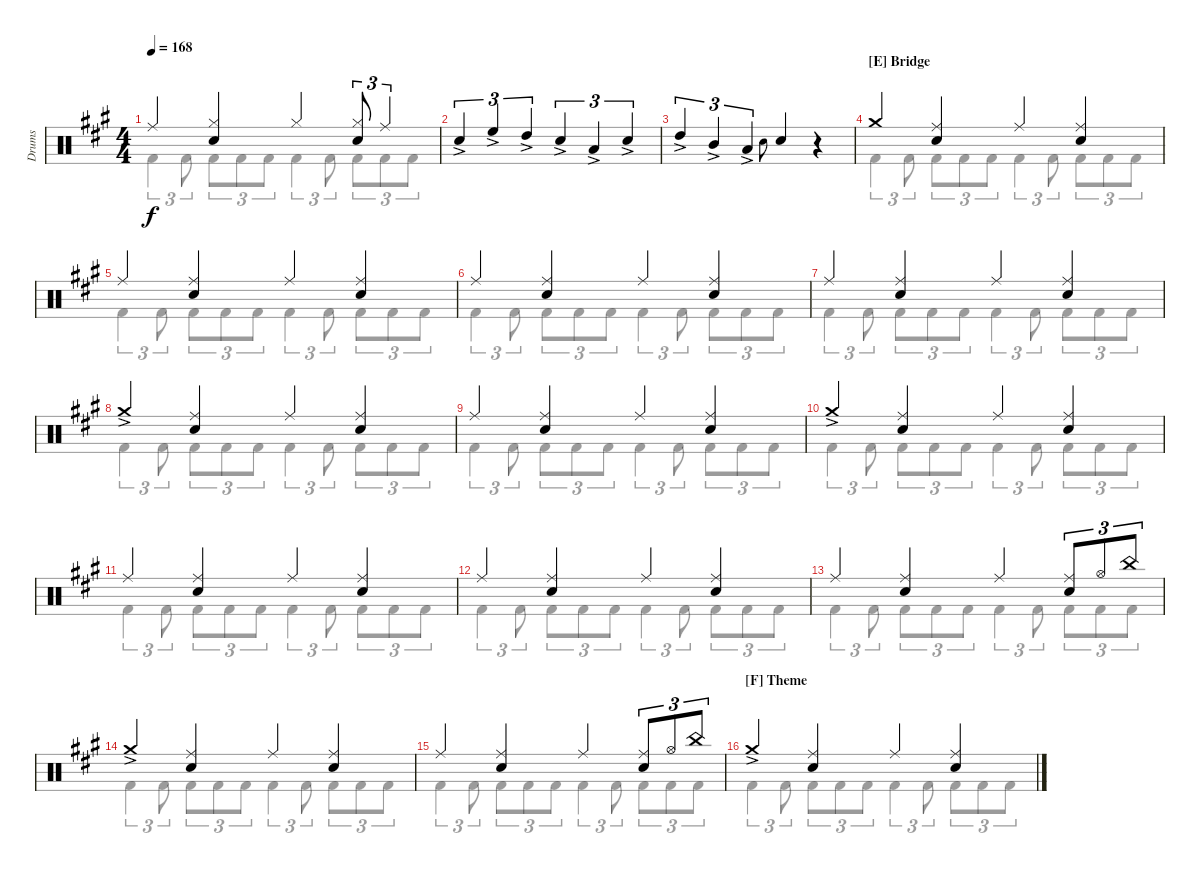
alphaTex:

\defaultSystemsLayout 4
\bracketExtendMode groupsimilarinstruments
\otherSystemsTrackNameOrientation horizontal
\track ("Drums" "Drums") {instrument percussion}
\staff {score}
\articulation defaults
\voice
\ts (4 4)
\tempo 168
\clef neutral
\ks a "Ride (middle)"{acc forcenatural}.4{dy f beam Up}
("Hi-Hat (closed)"{acc forcenatural} "Snare (hit) 2"{acc forcenatural}).4{beam Up} "Hi-Hat (closed)"{acc forcenatural}.4{beam Up} ("Hi-Hat (closed)"{acc forcenatural} "Snare (hit) 2"{acc forcenatural}).8{tu (3 2) beam Up} "Ride (middle)"{acc forcenatural}.4{tu (3 2) beam Up} |
"Snare (hit) 2"{ac acc forcenatural}.4{tu (3 2) beam Up} "High Floor Tom (hit)"{ac acc forcenatural}.4{tu (3 2) beam Up} "High Tom (hit)"{ac acc forcenatural}.4{tu (3 2) beam Up} "Snare (hit) 2"{ac acc forcenatural}.4{tu (3 2) beam Up} "Low Tom (hit)"{ac acc forcenatural}.4{tu (3 2) beam Up} "Snare (hit) 2"{ac acc forcenatural}.4{tu (3 2) beam Up} |
"High Tom (hit)"{ac acc forcenatural}.4{tu (3 2) beam Up} "Mid Tom (hit)"{ac acc forcenatural}.4{tu (3 2) beam Up} "Low Tom (hit)"{ac acc forcenatural}.4{tu (3 2) beam Up} "Snare (hit) 2"{acc forcenatural}.8{gr onbeat beam Down} "Snare (hit) 2"{acc forcenatural}.4{beam Up} r.4{beam Up} |
\section ("E" "Bridge")
"Crash medium (hit)"{acc forcenatural}.4{beam Up} ("Ride (middle)"{acc forcenatural} "Snare (hit) 2"{acc forcenatural}).4{beam Up} "Ride (middle)"{acc forcenatural}.4{beam Up} ("Ride (middle)"{acc forcenatural} "Snare (hit) 2"{acc forcenatural}).4{beam Up} |
"Ride (middle)"{acc forcenatural}.4{beam Up} ("Ride (middle)"{acc forcenatural} "Snare (hit) 2"{acc forcenatural}).4{beam Up} "Ride (middle)"{acc forcenatural}.4{beam Up} ("Ride (middle)"{acc forcenatural} "Snare (hit) 2"{acc forcenatural}).4{beam Up} |
"Ride (middle)"{acc forcenatural}.4{beam Up} ("Ride (middle)"{acc forcenatural} "Snare (hit) 2"{acc forcenatural}).4{beam Up} "Ride (middle)"{acc forcenatural}.4{beam Up} ("Ride (middle)"{acc forcenatural} "Snare (hit) 2"{acc forcenatural}).4{beam Up} |
"Ride (middle)"{acc forcenatural}.4{beam Up} ("Ride (middle)"{acc forcenatural} "Snare (hit) 2"{acc forcenatural}).4{beam Up} "Ride (middle)"{acc forcenatural}.4{beam Up} ("Ride (middle)"{acc forcenatural} "Snare (hit) 2"{acc forcenatural}).4{beam Up} |
"Crash medium (hit)"{ac acc forcenatural}.4{beam Up} ("Ride (middle)"{acc forcenatural} "Snare (hit) 2"{acc forcenatural}).4{beam Up} "Ride (middle)"{acc forcenatural}.4{beam Up} ("Ride (middle)"{acc forcenatural} "Snare (hit) 2"{acc forcenatural}).4{beam Up} |
"Ride (middle)"{acc forcenatural}.4{beam Up} ("Ride (middle)"{acc forcenatural} "Snare (hit) 2"{acc forcenatural}).4{beam Up} "Ride (middle)"{acc forcenatural}.4{beam Up} ("Ride (middle)"{acc forcenatural} "Snare (hit) 2"{acc forcenatural}).4{beam Up} |
"Crash medium (hit)"{ac acc forcenatural}.4{beam Up} ("Ride (middle)"{acc forcenatural} "Snare (hit) 2"{acc forcenatural}).4{beam Up} "Ride (middle)"{acc forcenatural}.4{beam Up} ("Ride (middle)"{acc forcenatural} "Snare (hit) 2"{acc forcenatural}).4{beam Up} |
"Ride (middle)"{acc forcenatural}.4{beam Up} ("Ride (middle)"{acc forcenatural} "Snare (hit) 2"{acc forcenatural}).4{beam Up} "Ride (middle)"{acc forcenatural}.4{beam Up} ("Ride (middle)"{acc forcenatural} "Snare (hit) 2"{acc forcenatural}).4{beam Up} |
"Ride (middle)"{acc forcenatural}.4{beam Up} ("Ride (middle)"{acc forcenatural} "Snare (hit) 2"{acc forcenatural}).4{beam Up} "Ride (middle)"{acc forcenatural}.4{beam Up} ("Ride (middle)"{acc forcenatural} "Snare (hit) 2"{acc forcenatural}).4{beam Up} |
"Ride (middle)"{acc forcenatural}.4{beam Up} ("Ride (middle)"{acc forcenatural} "Snare (hit) 2"{acc forcenatural}).4{beam Up} "Ride (middle)"{acc forcenatural}.4{beam Up} ("Snare (hit) 2"{acc forcenatural} "Ride (middle)"{acc forcenatural}).8{tu (3 2) beam Up} "Hi-Hat (open)"{acc forcenatural}.8{tu (3 2) beam Up} "China (hit)"{acc forcenatural}.8{tu (3 2) beam Up} |
"Crash medium (hit)"{ac acc forcenatural}.4{beam Up} ("Ride (middle)"{acc forcenatural} "Snare (hit) 2"{acc forcenatural}).4{beam Up} "Ride (middle)"{acc forcenatural}.4{beam Up} ("Ride (middle)"{acc forcenatural} "Snare (hit) 2"{acc forcenatural}).4{beam Up} |
"Ride (middle)"{acc forcenatural}.4{beam Up} ("Ride (middle)"{acc forcenatural} "Snare (hit) 2"{acc forcenatural}).4{beam Up} "Ride (middle)"{acc forcenatural}.4{beam Up} ("Snare (hit) 2"{acc forcenatural} "Ride (middle)"{acc forcenatural}).8{tu (3 2) beam Up} "Hi-Hat (open)"{acc forcenatural}.8{tu (3 2) beam Up} "China (hit)"{acc forcenatural}.8{tu (3 2) beam Up} |
\section ("F" "Theme")
"Crash medium (hit)"{ac acc forcenatural}.4{beam Up} ("Ride (middle)"{acc forcenatural} "Snare (hit) 2"{acc forcenatural}).4{beam Up} "Ride (middle)"{acc forcenatural}.4{beam Up} ("Ride (middle)"{acc forcenatural} "Snare (hit) 2"{acc forcenatural}).4{beam Up}
\voice
\clef neutral
\ottava regular
\simile none
\ks a "Kick (hit) 2"{acc forcenatural}.4{tu (3 2) dy f beam Down} "Kick (hit) 2"{acc forcenatural}.8{tu (3 2) beam Down} "Kick (hit) 2"{acc forcenatural}.8{tu (3 2) beam Down} "Kick (hit) 2"{acc forcenatural}.8{tu (3 2) beam Down} "Kick (hit) 2"{acc forcenatural}.8{tu (3 2) beam Down} "Kick (hit) 2"{acc forcenatural}.4{tu (3 2) beam Down} "Kick (hit) 2"{acc forcenatural}.8{tu (3 2) beam Down} "Kick (hit) 2"{acc forcenatural}.8{tu (3 2) beam Down} "Kick (hit) 2"{acc forcenatural}.8{tu (3 2) beam Down} "Kick (hit) 2"{acc forcenatural}.8{tu (3 2) beam Down}
|
|
|
"Kick (hit) 2"{acc forcenatural}.4{tu (3 2) beam Down} "Kick (hit) 2"{acc forcenatural}.8{tu (3 2) beam Down} "Kick (hit) 2"{acc forcenatural}.8{tu (3 2) beam Down} "Kick (hit) 2"{acc forcenatural}.8{tu (3 2) beam Down} "Kick (hit) 2"{acc forcenatural}.8{tu (3 2) beam Down} "Kick (hit) 2"{acc forcenatural}.4{tu (3 2) beam Down} "Kick (hit) 2"{acc forcenatural}.8{tu (3 2) beam Down} "Kick (hit) 2"{acc forcenatural}.8{tu (3 2) beam Down} "Kick (hit) 2"{acc forcenatural}.8{tu (3 2) beam Down} "Kick (hit) 2"{acc forcenatural}.8{tu (3 2) beam Down} |
"Kick (hit) 2"{acc forcenatural}.4{tu (3 2) beam Down} "Kick (hit) 2"{acc forcenatural}.8{tu (3 2) beam Down} "Kick (hit) 2"{acc forcenatural}.8{tu (3 2) beam Down} "Kick (hit) 2"{acc forcenatural}.8{tu (3 2) beam Down} "Kick (hit) 2"{acc forcenatural}.8{tu (3 2) beam Down} "Kick (hit) 2"{acc forcenatural}.4{tu (3 2) beam Down} "Kick (hit) 2"{acc forcenatural}.8{tu (3 2) beam Down} "Kick (hit) 2"{acc forcenatural}.8{tu (3 2) beam Down} "Kick (hit) 2"{acc forcenatural}.8{tu (3 2) beam Down} "Kick (hit) 2"{acc forcenatural}.8{tu (3 2) beam Down} |
"Kick (hit) 2"{acc forcenatural}.4{tu (3 2) beam Down} "Kick (hit) 2"{acc forcenatural}.8{tu (3 2) beam Down} "Kick (hit) 2"{acc forcenatural}.8{tu (3 2) beam Down} "Kick (hit) 2"{acc forcenatural}.8{tu (3 2) beam Down} "Kick (hit) 2"{acc forcenatural}.8{tu (3 2) beam Down} "Kick (hit) 2"{acc forcenatural}.4{tu (3 2) beam Down} "Kick (hit) 2"{acc forcenatural}.8{tu (3 2) beam Down} "Kick (hit) 2"{acc forcenatural}.8{tu (3 2) beam Down} "Kick (hit) 2"{acc forcenatural}.8{tu (3 2) beam Down} "Kick (hit) 2"{acc forcenatural}.8{tu (3 2) beam Down} |
"Kick (hit) 2"{acc forcenatural}.4{tu (3 2) beam Down} "Kick (hit) 2"{acc forcenatural}.8{tu (3 2) beam Down} "Kick (hit) 2"{acc forcenatural}.8{tu (3 2) beam Down} "Kick (hit) 2"{acc forcenatural}.8{tu (3 2) beam Down} "Kick (hit) 2"{acc forcenatural}.8{tu (3 2) beam Down} "Kick (hit) 2"{acc forcenatural}.4{tu (3 2) beam Down} "Kick (hit) 2"{acc forcenatural}.8{tu (3 2) beam Down} "Kick (hit) 2"{acc forcenatural}.8{tu (3 2) beam Down} "Kick (hit) 2"{acc forcenatural}.8{tu (3 2) beam Down} "Kick (hit) 2"{acc forcenatural}.8{tu (3 2) beam Down} |
"Kick (hit) 2"{acc forcenatural}.4{tu (3 2) beam Down} "Kick (hit) 2"{acc forcenatural}.8{tu (3 2) beam Down} "Kick (hit) 2"{acc forcenatural}.8{tu (3 2) beam Down} "Kick (hit) 2"{acc forcenatural}.8{tu (3 2) beam Down} "Kick (hit) 2"{acc forcenatural}.8{tu (3 2) beam Down} "Kick (hit) 2"{acc forcenatural}.4{tu (3 2) beam Down} "Kick (hit) 2"{acc forcenatural}.8{tu (3 2) beam Down} "Kick (hit) 2"{acc forcenatural}.8{tu (3 2) beam Down} "Kick (hit) 2"{acc forcenatural}.8{tu (3 2) beam Down} "Kick (hit) 2"{acc forcenatural}.8{tu (3 2) beam Down} |
"Kick (hit) 2"{acc forcenatural}.4{tu (3 2) beam Down} "Kick (hit) 2"{acc forcenatural}.8{tu (3 2) beam Down} "Kick (hit) 2"{acc forcenatural}.8{tu (3 2) beam Down} "Kick (hit) 2"{acc forcenatural}.8{tu (3 2) beam Down} "Kick (hit) 2"{acc forcenatural}.8{tu (3 2) beam Down} "Kick (hit) 2"{acc forcenatural}.4{tu (3 2) beam Down} "Kick (hit) 2"{acc forcenatural}.8{tu (3 2) beam Down} "Kick (hit) 2"{acc forcenatural}.8{tu (3 2) beam Down} "Kick (hit) 2"{acc forcenatural}.8{tu (3 2) beam Down} "Kick (hit) 2"{acc forcenatural}.8{tu (3 2) beam Down} |
"Kick (hit) 2"{acc forcenatural}.4{tu (3 2) beam Down} "Kick (hit) 2"{acc forcenatural}.8{tu (3 2) beam Down} "Kick (hit) 2"{acc forcenatural}.8{tu (3 2) beam Down} "Kick (hit) 2"{acc forcenatural}.8{tu (3 2) beam Down} "Kick (hit) 2"{acc forcenatural}.8{tu (3 2) beam Down} "Kick (hit) 2"{acc forcenatural}.4{tu (3 2) beam Down} "Kick (hit) 2"{acc forcenatural}.8{tu (3 2) beam Down} "Kick (hit) 2"{acc forcenatural}.8{tu (3 2) beam Down} "Kick (hit) 2"{acc forcenatural}.8{tu (3 2) beam Down} "Kick (hit) 2"{acc forcenatural}.8{tu (3 2) beam Down} |
"Kick (hit) 2"{acc forcenatural}.4{tu (3 2) beam Down} "Kick (hit) 2"{acc forcenatural}.8{tu (3 2) beam Down} "Kick (hit) 2"{acc forcenatural}.8{tu (3 2) beam Down} "Kick (hit) 2"{acc forcenatural}.8{tu (3 2) beam Down} "Kick (hit) 2"{acc forcenatural}.8{tu (3 2) beam Down} "Kick (hit) 2"{acc forcenatural}.4{tu (3 2) beam Down} "Kick (hit) 2"{acc forcenatural}.8{tu (3 2) beam Down} "Kick (hit) 2"{acc forcenatural}.8{tu (3 2) beam Down} "Kick (hit) 2"{acc forcenatural}.8{tu (3 2) beam Down} "Kick (hit) 2"{acc forcenatural}.8{tu (3 2) beam Down} |
"Kick (hit) 2"{acc forcenatural}.4{tu (3 2) beam Down} "Kick (hit) 2"{acc forcenatural}.8{tu (3 2) beam Down} "Kick (hit) 2"{acc forcenatural}.8{tu (3 2) beam Down} "Kick (hit) 2"{acc forcenatural}.8{tu (3 2) beam Down} "Kick (hit) 2"{acc forcenatural}.8{tu (3 2) beam Down} "Kick (hit) 2"{acc forcenatural}.4{tu (3 2) beam Down} "Kick (hit) 2"{acc forcenatural}.8{tu (3 2) beam Down} "Kick (hit) 2"{acc forcenatural}.8{tu (3 2) beam Down} "Kick (hit) 2"{acc forcenatural}.8{tu (3 2) beam Down} "Kick (hit) 2"{acc forcenatural}.8{tu (3 2) beam Down} |
"Kick (hit) 2"{acc forcenatural}.4{tu (3 2) beam Down} "Kick (hit) 2"{acc forcenatural}.8{tu (3 2) beam Down} "Kick (hit) 2"{acc forcenatural}.8{tu (3 2) beam Down} "Kick (hit) 2"{acc forcenatural}.8{tu (3 2) beam Down} "Kick (hit) 2"{acc forcenatural}.8{tu (3 2) beam Down} "Kick (hit) 2"{acc forcenatural}.4{tu (3 2) beam Down} "Kick (hit) 2"{acc forcenatural}.8{tu (3 2) beam Down} "Kick (hit) 2"{acc forcenatural}.8{tu (3 2) beam Down} "Kick (hit) 2"{acc forcenatural}.8{tu (3 2) beam Down} "Kick (hit) 2"{acc forcenatural}.8{tu (3 2) beam Down} |
"Kick (hit) 2"{acc forcenatural}.4{tu (3 2) beam Down} "Kick (hit) 2"{acc forcenatural}.8{tu (3 2) beam Down} "Kick (hit) 2"{acc forcenatural}.8{tu (3 2) beam Down} "Kick (hit) 2"{acc forcenatural}.8{tu (3 2) beam Down} "Kick (hit) 2"{acc forcenatural}.8{tu (3 2) beam Down} "Kick (hit) 2"{acc forcenatural}.4{tu (3 2) beam Down} "Kick (hit) 2"{acc forcenatural}.8{tu (3 2) beam Down} "Kick (hit) 2"{acc forcenatural}.8{tu (3 2) beam Down} "Kick (hit) 2"{acc forcenatural}.8{tu (3 2) beam Down} "Kick (hit) 2"{acc forcenatural}.8{tu (3 2) beam Down} |
"Kick (hit) 2"{acc forcenatural}.4{tu (3 2) beam Down} "Kick (hit) 2"{acc forcenatural}.8{tu (3 2) beam Down} "Kick (hit) 2"{acc forcenatural}.8{tu (3 2) beam Down} "Kick (hit) 2"{acc forcenatural}.8{tu (3 2) beam Down} "Kick (hit) 2"{acc forcenatural}.8{tu (3 2) beam Down} "Kick (hit) 2"{acc forcenatural}.4{tu (3 2) beam Down} "Kick (hit) 2"{acc forcenatural}.8{tu (3 2) beam Down} "Kick (hit) 2"{acc forcenatural}.8{tu (3 2) beam Down} "Kick (hit) 2"{acc forcenatural}.8{tu (3 2) beam Down} "Kick (hit) 2"{acc forcenatural}.8{tu (3 2) beam Down} |
"Kick (hit) 2"{acc forcenatural}.4{tu (3 2) beam Down} "Kick (hit) 2"{acc forcenatural}.8{tu (3 2) beam Down} "Kick (hit) 2"{acc forcenatural}.8{tu (3 2) beam Down} "Kick (hit) 2"{acc forcenatural}.8{tu (3 2) beam Down} "Kick (hit) 2"{acc forcenatural}.8{tu (3 2) beam Down} "Kick (hit) 2"{acc forcenatural}.4{tu (3 2) beam Down} "Kick (hit) 2"{acc forcenatural}.8{tu (3 2) beam Down} "Kick (hit) 2"{acc forcenatural}.8{tu (3 2) beam Down} "Kick (hit) 2"{acc forcenatural}.8{tu (3 2) beam Down} "Kick (hit) 2"{acc forcenatural}.8{tu (3 2) beam Down}
